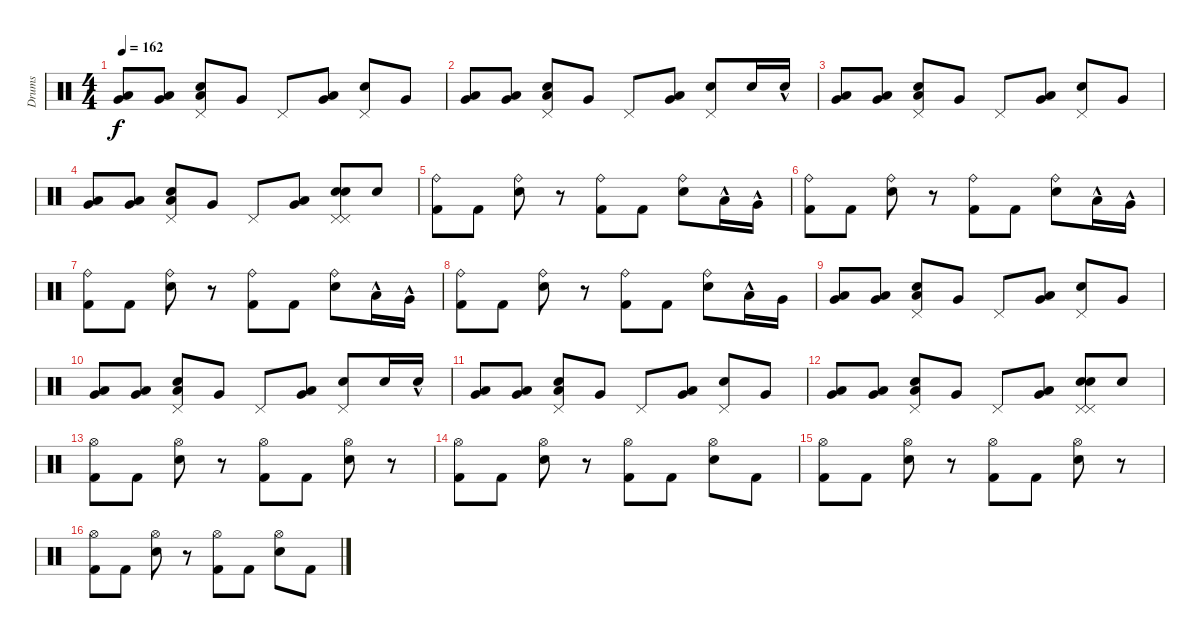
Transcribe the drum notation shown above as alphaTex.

\track ("Drums" "Drums") {instrument percussion}
\staff {score}
\articulation defaults
\ts (4 4)
\tempo 162
\clef neutral
\ks c
("Very Low Tom (hit)" "Low Floor Tom (hit)").8{dy f} ("Very Low Tom (hit)" "Low Floor Tom (hit)").8 ("Electric Snare (hit)" "Pedal Hi-Hat (hit)" "Low Floor Tom (hit)").8 "Very Low Tom (hit)".8 "Pedal Hi-Hat (hit)".8 ("Very Low Tom (hit)" "Low Floor Tom (hit)").8 ("Electric Snare (hit)" "Pedal Hi-Hat (hit)").8 "Very Low Tom (hit)".8 |
("Very Low Tom (hit)" "Low Floor Tom (hit)").8 ("Very Low Tom (hit)" "Low Floor Tom (hit)").8 ("Electric Snare (hit)" "Pedal Hi-Hat (hit)" "Low Floor Tom (hit)").8 "Very Low Tom (hit)".8 "Pedal Hi-Hat (hit)".8 ("Very Low Tom (hit)" "Low Floor Tom (hit)").8 ("Electric Snare (hit)" "Pedal Hi-Hat (hit)").8 "Electric Snare (hit)".16 "Electric Snare (hit)"{hac}.16 |
("Very Low Tom (hit)" "Low Floor Tom (hit)").8 ("Very Low Tom (hit)" "Low Floor Tom (hit)").8 ("Electric Snare (hit)" "Pedal Hi-Hat (hit)" "Low Floor Tom (hit)").8 "Very Low Tom (hit)".8 "Pedal Hi-Hat (hit)".8 ("Very Low Tom (hit)" "Low Floor Tom (hit)").8 ("Electric Snare (hit)" "Pedal Hi-Hat (hit)").8 "Very Low Tom (hit)".8 |
("Very Low Tom (hit)" "Low Floor Tom (hit)").8 ("Very Low Tom (hit)" "Low Floor Tom (hit)").8 ("Electric Snare (hit)" "Pedal Hi-Hat (hit)" "Low Floor Tom (hit)").8 "Very Low Tom (hit)".8 "Pedal Hi-Hat (hit)".8 ("Very Low Tom (hit)" "Low Floor Tom (hit)").8 ("Electric Snare (hit)" "Pedal Hi-Hat (hit)" "Electric Snare (hit)" "Pedal Hi-Hat (hit)").8 "Electric Snare (hit)".8 |
("Ride (bell)" "Kick (hit) 2").8 "Kick (hit) 2".8 ("Ride (bell)" "Electric Snare (hit)").8 r.8 ("Ride (bell)" "Kick (hit) 2").8 "Kick (hit) 2".8 ("Ride (bell)" "Electric Snare (hit)").8 "Low Tom (hit)"{hac}.16 "Very Low Tom (hit)"{hac}.16 |
("Ride (bell)" "Kick (hit) 2").8 "Kick (hit) 2".8 ("Ride (bell)" "Electric Snare (hit)").8 r.8 ("Ride (bell)" "Kick (hit) 2").8 "Kick (hit) 2".8 ("Ride (bell)" "Electric Snare (hit)").8 "Low Tom (hit)"{hac}.16 "Very Low Tom (hit)"{hac}.16 |
("Ride (bell)" "Kick (hit) 2").8 "Kick (hit) 2".8 ("Ride (bell)" "Electric Snare (hit)").8 r.8 ("Ride (bell)" "Kick (hit) 2").8 "Kick (hit) 2".8 ("Ride (bell)" "Electric Snare (hit)").8 "Low Tom (hit)"{hac}.16 "Very Low Tom (hit)"{hac}.16 |
("Ride (bell)" "Kick (hit) 2").8 "Kick (hit) 2".8 ("Ride (bell)" "Electric Snare (hit)").8 r.8 ("Ride (bell)" "Kick (hit) 2").8 "Kick (hit) 2".8 ("Ride (bell)" "Electric Snare (hit)").8 "Low Tom (hit)"{hac}.16 "Very Low Tom (hit)".16 |
("Very Low Tom (hit)" "Low Floor Tom (hit)").8 ("Very Low Tom (hit)" "Low Floor Tom (hit)").8 ("Electric Snare (hit)" "Pedal Hi-Hat (hit)" "Low Floor Tom (hit)").8 "Very Low Tom (hit)".8 "Pedal Hi-Hat (hit)".8 ("Very Low Tom (hit)" "Low Floor Tom (hit)").8 ("Electric Snare (hit)" "Pedal Hi-Hat (hit)").8 "Very Low Tom (hit)".8 |
("Very Low Tom (hit)" "Low Floor Tom (hit)").8 ("Very Low Tom (hit)" "Low Floor Tom (hit)").8 ("Electric Snare (hit)" "Pedal Hi-Hat (hit)" "Low Floor Tom (hit)").8 "Very Low Tom (hit)".8 "Pedal Hi-Hat (hit)".8 ("Very Low Tom (hit)" "Low Floor Tom (hit)").8 ("Electric Snare (hit)" "Pedal Hi-Hat (hit)").8 "Electric Snare (hit)".16 "Electric Snare (hit)"{hac}.16 |
("Very Low Tom (hit)" "Low Floor Tom (hit)").8 ("Very Low Tom (hit)" "Low Floor Tom (hit)").8 ("Electric Snare (hit)" "Pedal Hi-Hat (hit)" "Low Floor Tom (hit)").8 "Very Low Tom (hit)".8 "Pedal Hi-Hat (hit)".8 ("Very Low Tom (hit)" "Low Floor Tom (hit)").8 ("Electric Snare (hit)" "Pedal Hi-Hat (hit)").8 "Very Low Tom (hit)".8 |
("Very Low Tom (hit)" "Low Floor Tom (hit)").8 ("Very Low Tom (hit)" "Low Floor Tom (hit)").8 ("Electric Snare (hit)" "Pedal Hi-Hat (hit)" "Low Floor Tom (hit)").8 "Very Low Tom (hit)".8 "Pedal Hi-Hat (hit)".8 ("Very Low Tom (hit)" "Low Floor Tom (hit)").8 ("Electric Snare (hit)" "Pedal Hi-Hat (hit)" "Electric Snare (hit)" "Pedal Hi-Hat (hit)").8 "Electric Snare (hit)".8 |
("Hi-Hat (open)" "Kick (hit) 2").8 "Kick (hit) 2".8 ("Hi-Hat (open)" "Electric Snare (hit)").8 r.8 ("Hi-Hat (open)" "Kick (hit) 2").8 "Kick (hit) 2".8 ("Hi-Hat (open)" "Electric Snare (hit)").8 r.8 |
("Hi-Hat (open)" "Kick (hit) 2").8 "Kick (hit) 2".8 ("Hi-Hat (open)" "Electric Snare (hit)").8 r.8 ("Hi-Hat (open)" "Kick (hit) 2").8 "Kick (hit) 2".8 ("Hi-Hat (open)" "Electric Snare (hit)").8 "Kick (hit) 2".8 |
("Hi-Hat (open)" "Kick (hit) 2").8 "Kick (hit) 2".8 ("Hi-Hat (open)" "Electric Snare (hit)").8 r.8 ("Hi-Hat (open)" "Kick (hit) 2").8 "Kick (hit) 2".8 ("Hi-Hat (open)" "Electric Snare (hit)").8 r.8 |
("Hi-Hat (open)" "Kick (hit) 2").8 "Kick (hit) 2".8 ("Hi-Hat (open)" "Electric Snare (hit)").8 r.8 ("Hi-Hat (open)" "Kick (hit) 2").8 "Kick (hit) 2".8 ("Hi-Hat (open)" "Electric Snare (hit)").8 "Kick (hit) 2".8
